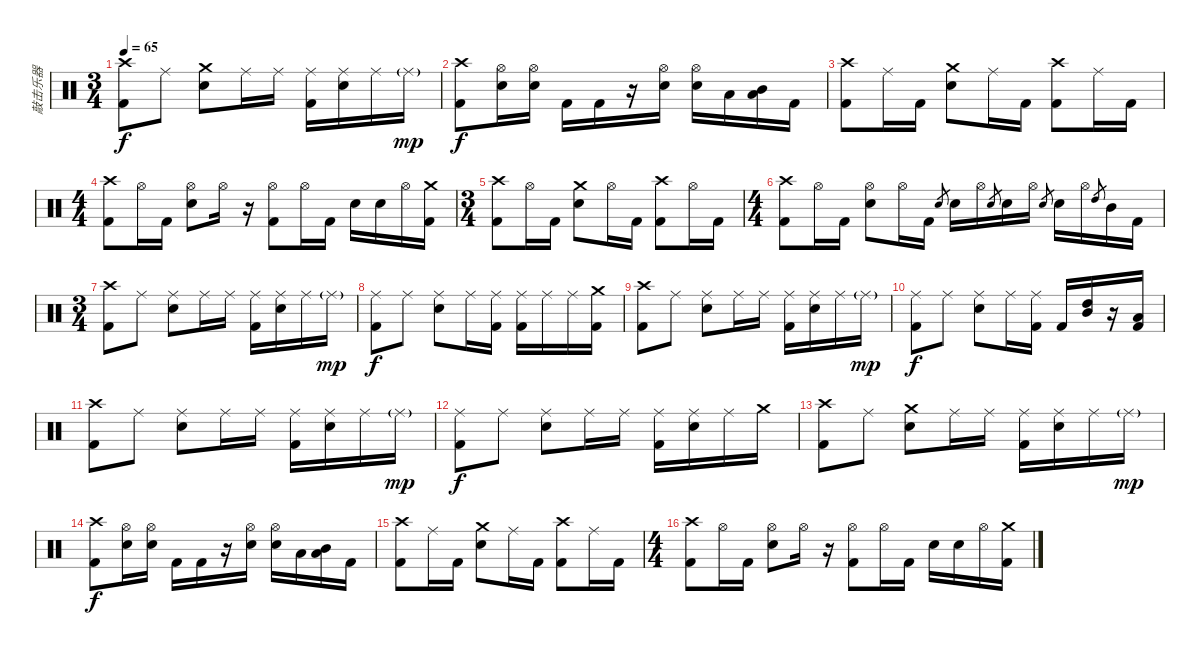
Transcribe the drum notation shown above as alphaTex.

\track ("敲击乐器" "敲击乐器") {instrument percussion}
\staff {score}
\articulation defaults
\ts (3 4)
\tempo 65
\clef neutral
\ks c
("Crash high (hit)" "Kick (hit) 2").8{dy f} "Ride (middle)".8 ("Crash medium (hit)" "Snare (hit) 2").8 "Ride (middle)".16 "Ride (middle)".16 ("Ride (middle)" "Kick (hit) 2").16 ("Ride (middle)" "Snare (hit) 2").16 "Ride (middle)".16 "Ride (middle)"{g}.16{dy mp} |
("Crash high (hit)" "Kick (hit) 2").8{dy f} ("Hi-Hat (open)" "Snare (hit) 2").16 ("Hi-Hat (open)" "Snare (hit) 2").16 "Kick (hit) 2".16 "Kick (hit) 2".16 r.16 ("Hi-Hat (open)" "Snare (hit) 2").16 ("Hi-Hat (open)" "Snare (hit) 2").16 "Low Tom (hit)".16 ("Low Tom (hit)" "Mid Tom (hit)").16 "Kick (hit) 2".16 |
("Kick (hit) 2" "Crash high (hit)").8 "Ride (middle)".16 "Kick (hit) 2".16 ("Snare (hit) 2" "Crash medium (hit)").8 "Ride (middle)".16 "Kick (hit) 2".16 ("Crash high (hit)" "Kick (hit) 2").8 "Ride (middle)".16 "Kick (hit) 2".16 |
\ts (4 4)
("Kick (hit) 2" "Crash high (hit)").8 "Hi-Hat (open)".16 "Kick (hit) 2".16 ("Hi-Hat (open)" "Snare (hit) 2").8 "Hi-Hat (open)".16 r.16 ("Kick (hit) 2" "Hi-Hat (open)").8 "Hi-Hat (open)".16 "Kick (hit) 2".16 "Snare (hit) 2".16 "Snare (hit) 2".16 "Hi-Hat (open)".16 ("Kick (hit) 2" "Crash medium (hit)").16 |
\ts (3 4)
("Kick (hit) 2" "Crash high (hit)").8 "Hi-Hat (open)".16 "Kick (hit) 2".16 ("Snare (hit) 2" "Crash medium (hit)").8 "Hi-Hat (open)".16 "Kick (hit) 2".16 ("Crash high (hit)" "Kick (hit) 2").8 "Hi-Hat (open)".16 "Kick (hit) 2".16 |
\ts (4 4)
("Kick (hit) 2" "Crash high (hit)").8 "Hi-Hat (open)".16 "Kick (hit) 2".16 ("Hi-Hat (open)" "Snare (hit) 2").8 "Hi-Hat (open)".16 "Kick (hit) 2".16 "Snare (hit) 2".8{gr} "Snare (hit) 2".16 "Hi-Hat (open)".16 "Snare (hit) 2".8{gr} "Snare (hit) 2".16 "Hi-Hat (open)".16 "Snare (hit) 2".8{gr} "Snare (hit) 2".16 "Hi-Hat (open)".16 "High Tom (hit)".8{gr} "Mid Tom (hit)".16 "Kick (hit) 2".16 |
\ts (3 4)
("Crash high (hit)" "Kick (hit) 2").8 "Ride (middle)".8 ("Ride (middle)" "Snare (hit) 2").8 "Ride (middle)".16 "Ride (middle)".16 ("Ride (middle)" "Kick (hit) 2").16 ("Ride (middle)" "Snare (hit) 2").16 "Ride (middle)".16 "Ride (middle)"{g}.16{dy mp} |
("Ride (middle)" "Kick (hit) 2").8{dy f} "Ride (middle)".8 ("Ride (middle)" "Snare (hit) 2").8 "Ride (middle)".16 ("Ride (middle)" "Kick (hit) 2").16 ("Ride (middle)" "Kick (hit) 2").16 "Ride (middle)".16 "Ride (middle)".16 ("Crash medium (hit)" "Kick (hit) 2").16 |
("Crash high (hit)" "Kick (hit) 2").8 "Ride (middle)".8 ("Ride (middle)" "Snare (hit) 2").8 "Ride (middle)".16 "Ride (middle)".16 ("Ride (middle)" "Kick (hit) 2").16 ("Ride (middle)" "Snare (hit) 2").16 "Ride (middle)".16 "Ride (middle)"{g}.16{dy mp} |
("Ride (middle)" "Kick (hit) 2").8{dy f} "Ride (middle)".8 ("Ride (middle)" "Snare (hit) 2").8 "Ride (middle)".16 ("Ride (middle)" "Kick (hit) 2").16 "Kick (hit) 2".16 ("Mid Tom (hit)" "High Tom (hit)").16 r.16 ("Low Tom (hit)" "Kick (hit) 2").16 |
("Crash high (hit)" "Kick (hit) 2").8 "Ride (middle)".8 ("Ride (middle)" "Snare (hit) 2").8 "Ride (middle)".16 "Ride (middle)".16 ("Ride (middle)" "Kick (hit) 2").16 ("Ride (middle)" "Snare (hit) 2").16 "Ride (middle)".16 "Ride (middle)"{g}.16{dy mp} |
("Ride (middle)" "Kick (hit) 2").8{dy f} "Ride (middle)".8 ("Ride (middle)" "Snare (hit) 2").8 "Ride (middle)".16 "Ride (middle)".16 ("Ride (middle)" "Kick (hit) 2").16 ("Ride (middle)" "Snare (hit) 2").16 "Ride (middle)".16 "Crash medium (hit)".16 |
("Crash high (hit)" "Kick (hit) 2").8 "Ride (middle)".8 ("Crash medium (hit)" "Snare (hit) 2").8 "Ride (middle)".16 "Ride (middle)".16 ("Ride (middle)" "Kick (hit) 2").16 ("Ride (middle)" "Snare (hit) 2").16 "Ride (middle)".16 "Ride (middle)"{g}.16{dy mp} |
("Crash high (hit)" "Kick (hit) 2").8{dy f} ("Hi-Hat (open)" "Snare (hit) 2").16 ("Hi-Hat (open)" "Snare (hit) 2").16 "Kick (hit) 2".16 "Kick (hit) 2".16 r.16 ("Hi-Hat (open)" "Snare (hit) 2").16 ("Hi-Hat (open)" "Snare (hit) 2").16 "Low Tom (hit)".16 ("Low Tom (hit)" "Mid Tom (hit)").16 "Kick (hit) 2".16 |
("Kick (hit) 2" "Crash high (hit)").8 "Ride (middle)".16 "Kick (hit) 2".16 ("Snare (hit) 2" "Crash medium (hit)").8 "Ride (middle)".16 "Kick (hit) 2".16 ("Crash high (hit)" "Kick (hit) 2").8 "Ride (middle)".16 "Kick (hit) 2".16 |
\ts (4 4)
("Kick (hit) 2" "Crash high (hit)").8 "Hi-Hat (open)".16 "Kick (hit) 2".16 ("Hi-Hat (open)" "Snare (hit) 2").8 "Hi-Hat (open)".16 r.16 ("Kick (hit) 2" "Hi-Hat (open)").8 "Hi-Hat (open)".16 "Kick (hit) 2".16 "Snare (hit) 2".16 "Snare (hit) 2".16 "Hi-Hat (open)".16 ("Kick (hit) 2" "Crash medium (hit)").16
